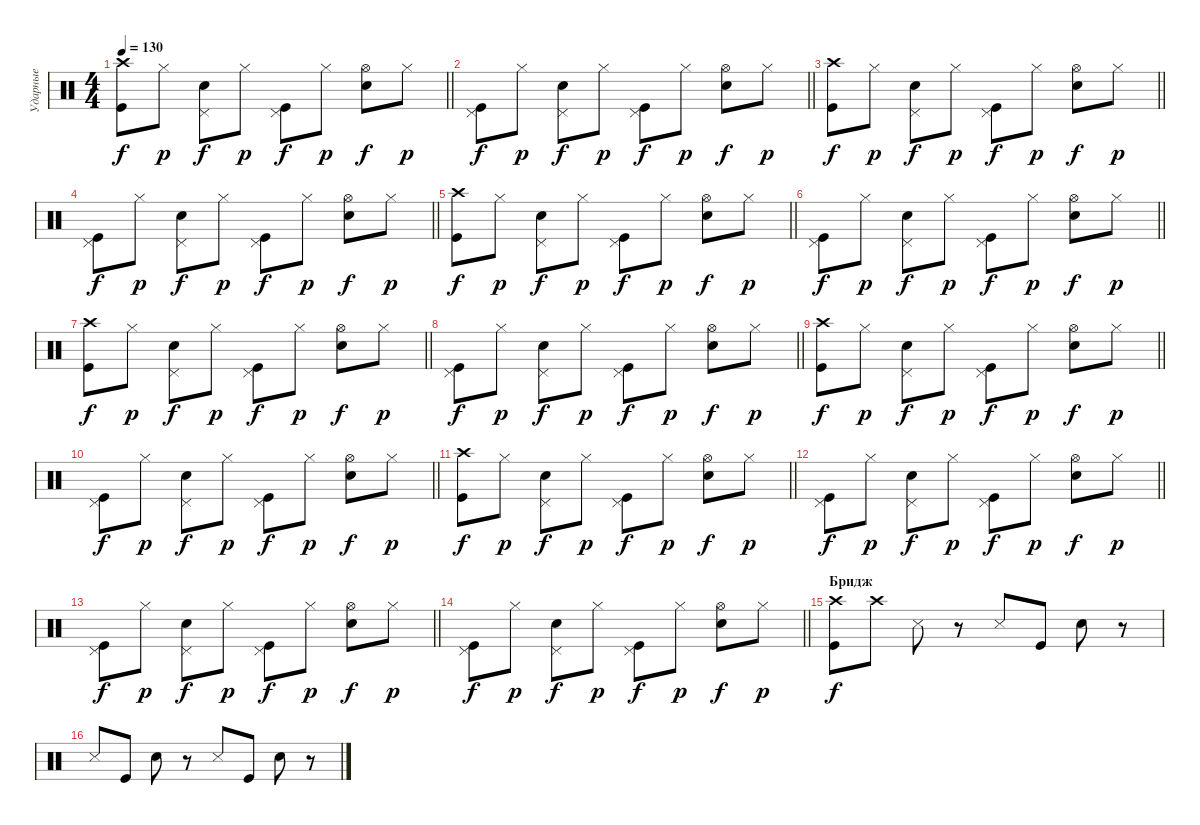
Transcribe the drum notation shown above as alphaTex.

\track ("Ударные" "Ударные") {instrument percussion}
\staff {score}
\articulation defaults
\ts (4 4)
\tempo 130
\clef neutral
\barLineRight lightlight
\ks c
("Crash high (hit)" "Kick (hit)").8{dy f} "Hi-Hat (closed)".8{dy p} ("Pedal Hi-Hat (hit)" "Snare (hit) 2").8{dy f} "Hi-Hat (closed)".8{dy p} ("Pedal Hi-Hat (hit)" "Kick (hit)").8{dy f} "Hi-Hat (closed)".8{dy p} ("Hi-Hat (open)" "Snare (hit) 2").8{dy f} "Hi-Hat (closed)".8{dy p} |
\barLineRight lightlight
("Pedal Hi-Hat (hit)" "Kick (hit)").8{dy f} "Hi-Hat (closed)".8{dy p} ("Pedal Hi-Hat (hit)" "Snare (hit) 2").8{dy f} "Hi-Hat (closed)".8{dy p} ("Pedal Hi-Hat (hit)" "Kick (hit)").8{dy f} "Hi-Hat (closed)".8{dy p} ("Hi-Hat (open)" "Snare (hit) 2").8{dy f} "Hi-Hat (closed)".8{dy p} |
\barLineRight lightlight
("Crash high (hit)" "Kick (hit)").8{dy f} "Hi-Hat (closed)".8{dy p} ("Pedal Hi-Hat (hit)" "Snare (hit) 2").8{dy f} "Hi-Hat (closed)".8{dy p} ("Pedal Hi-Hat (hit)" "Kick (hit)").8{dy f} "Hi-Hat (closed)".8{dy p} ("Hi-Hat (open)" "Snare (hit) 2").8{dy f} "Hi-Hat (closed)".8{dy p} |
\barLineRight lightlight
("Pedal Hi-Hat (hit)" "Kick (hit)").8{dy f} "Hi-Hat (closed)".8{dy p} ("Pedal Hi-Hat (hit)" "Snare (hit) 2").8{dy f} "Hi-Hat (closed)".8{dy p} ("Pedal Hi-Hat (hit)" "Kick (hit)").8{dy f} "Hi-Hat (closed)".8{dy p} ("Hi-Hat (open)" "Snare (hit) 2").8{dy f} "Hi-Hat (closed)".8{dy p} |
\barLineRight lightlight
("Crash high (hit)" "Kick (hit)").8{dy f} "Hi-Hat (closed)".8{dy p} ("Pedal Hi-Hat (hit)" "Snare (hit) 2").8{dy f} "Hi-Hat (closed)".8{dy p} ("Pedal Hi-Hat (hit)" "Kick (hit)").8{dy f} "Hi-Hat (closed)".8{dy p} ("Hi-Hat (open)" "Snare (hit) 2").8{dy f} "Hi-Hat (closed)".8{dy p} |
\barLineRight lightlight
("Pedal Hi-Hat (hit)" "Kick (hit)").8{dy f} "Hi-Hat (closed)".8{dy p} ("Pedal Hi-Hat (hit)" "Snare (hit) 2").8{dy f} "Hi-Hat (closed)".8{dy p} ("Pedal Hi-Hat (hit)" "Kick (hit)").8{dy f} "Hi-Hat (closed)".8{dy p} ("Hi-Hat (open)" "Snare (hit) 2").8{dy f} "Hi-Hat (closed)".8{dy p} |
\barLineRight lightlight
("Crash high (hit)" "Kick (hit)").8{dy f} "Hi-Hat (closed)".8{dy p} ("Pedal Hi-Hat (hit)" "Snare (hit) 2").8{dy f} "Hi-Hat (closed)".8{dy p} ("Pedal Hi-Hat (hit)" "Kick (hit)").8{dy f} "Hi-Hat (closed)".8{dy p} ("Hi-Hat (open)" "Snare (hit) 2").8{dy f} "Hi-Hat (closed)".8{dy p} |
\barLineRight lightlight
("Pedal Hi-Hat (hit)" "Kick (hit)").8{dy f} "Hi-Hat (closed)".8{dy p} ("Pedal Hi-Hat (hit)" "Snare (hit) 2").8{dy f} "Hi-Hat (closed)".8{dy p} ("Pedal Hi-Hat (hit)" "Kick (hit)").8{dy f} "Hi-Hat (closed)".8{dy p} ("Hi-Hat (open)" "Snare (hit) 2").8{dy f} "Hi-Hat (closed)".8{dy p} |
\barLineRight lightlight
("Crash high (hit)" "Kick (hit)").8{dy f} "Hi-Hat (closed)".8{dy p} ("Pedal Hi-Hat (hit)" "Snare (hit) 2").8{dy f} "Hi-Hat (closed)".8{dy p} ("Pedal Hi-Hat (hit)" "Kick (hit)").8{dy f} "Hi-Hat (closed)".8{dy p} ("Hi-Hat (open)" "Snare (hit) 2").8{dy f} "Hi-Hat (closed)".8{dy p} |
\barLineRight lightlight
("Pedal Hi-Hat (hit)" "Kick (hit)").8{dy f} "Hi-Hat (closed)".8{dy p} ("Pedal Hi-Hat (hit)" "Snare (hit) 2").8{dy f} "Hi-Hat (closed)".8{dy p} ("Pedal Hi-Hat (hit)" "Kick (hit)").8{dy f} "Hi-Hat (closed)".8{dy p} ("Hi-Hat (open)" "Snare (hit) 2").8{dy f} "Hi-Hat (closed)".8{dy p} |
\barLineRight lightlight
("Crash high (hit)" "Kick (hit)").8{dy f} "Hi-Hat (closed)".8{dy p} ("Pedal Hi-Hat (hit)" "Snare (hit) 2").8{dy f} "Hi-Hat (closed)".8{dy p} ("Pedal Hi-Hat (hit)" "Kick (hit)").8{dy f} "Hi-Hat (closed)".8{dy p} ("Hi-Hat (open)" "Snare (hit) 2").8{dy f} "Hi-Hat (closed)".8{dy p} |
\barLineRight lightlight
("Pedal Hi-Hat (hit)" "Kick (hit)").8{dy f} "Hi-Hat (closed)".8{dy p} ("Pedal Hi-Hat (hit)" "Snare (hit) 2").8{dy f} "Hi-Hat (closed)".8{dy p} ("Pedal Hi-Hat (hit)" "Kick (hit)").8{dy f} "Hi-Hat (closed)".8{dy p} ("Hi-Hat (open)" "Snare (hit) 2").8{dy f} "Hi-Hat (closed)".8{dy p} |
\barLineRight lightlight
("Pedal Hi-Hat (hit)" "Kick (hit)").8{dy f} "Hi-Hat (closed)".8{dy p} ("Pedal Hi-Hat (hit)" "Snare (hit) 2").8{dy f} "Hi-Hat (closed)".8{dy p} ("Pedal Hi-Hat (hit)" "Kick (hit)").8{dy f} "Hi-Hat (closed)".8{dy p} ("Hi-Hat (open)" "Snare (hit) 2").8{dy f} "Hi-Hat (closed)".8{dy p} |
\barLineRight lightlight
("Pedal Hi-Hat (hit)" "Kick (hit)").8{dy f} "Hi-Hat (closed)".8{dy p} ("Pedal Hi-Hat (hit)" "Snare (hit) 2").8{dy f} "Hi-Hat (closed)".8{dy p} ("Pedal Hi-Hat (hit)" "Kick (hit)").8{dy f} "Hi-Hat (closed)".8{dy p} ("Hi-Hat (open)" "Snare (hit) 2").8{dy f} "Hi-Hat (closed)".8{dy p} |
\section ("" "Бридж")
("Crash high (hit)" "Kick (hit)").8{dy f} "Crash high (hit)".8 "Snare (side stick) 3".8 r.8 "Snare (side stick) 3".8 "Kick (hit)".8 "Snare (hit) 2".8 r.8 |
"Snare (side stick) 3".8 "Kick (hit)".8 "Snare (hit) 2".8 r.8 "Snare (side stick) 3".8 "Kick (hit)".8 "Snare (hit) 2".8 r.8
